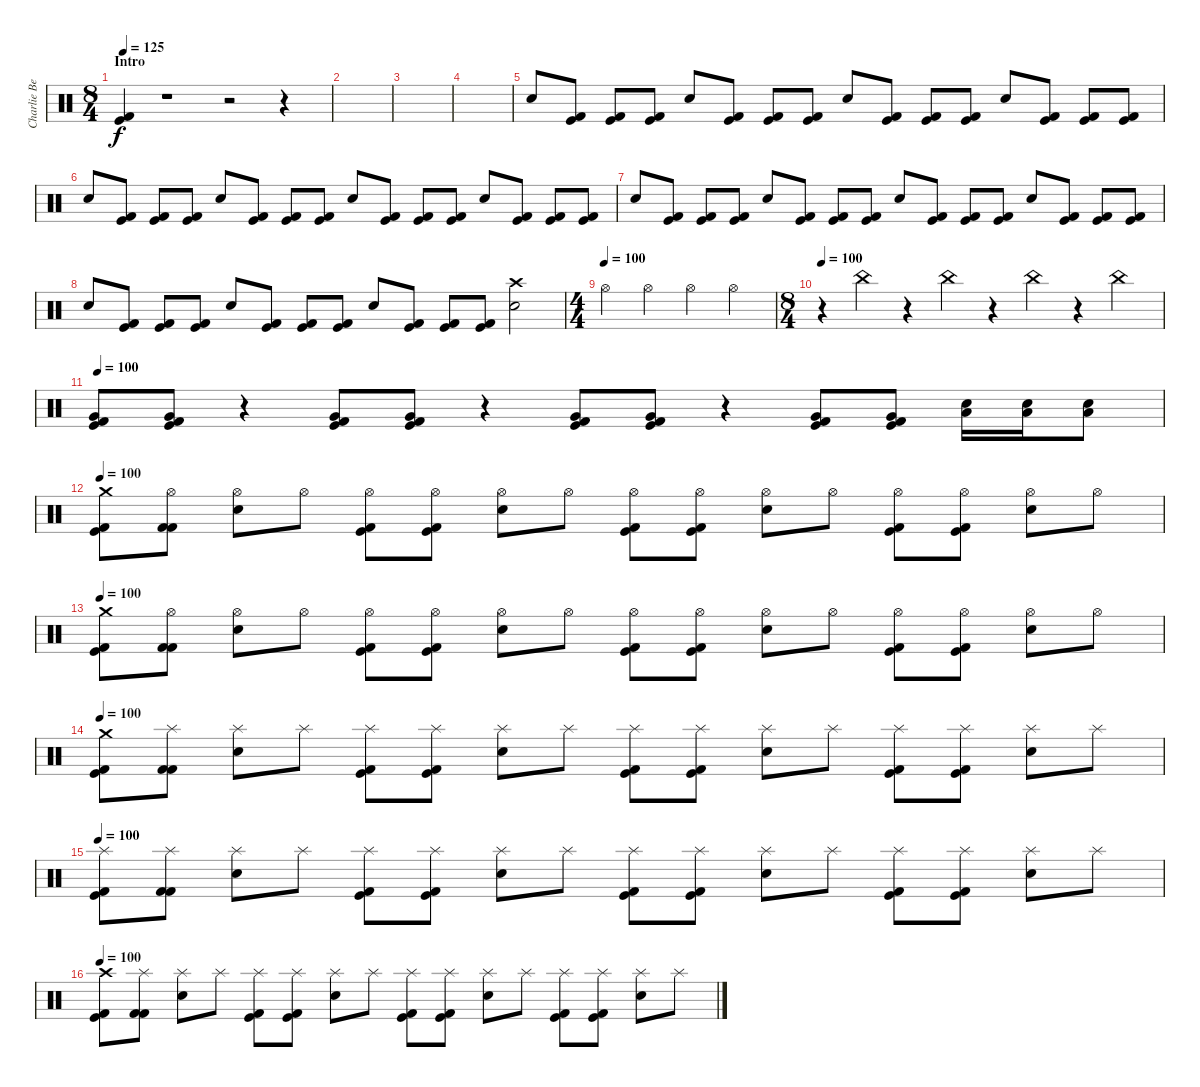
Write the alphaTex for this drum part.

\track ("Charlie Benante" "Charlie Be") {instrument percussion}
\staff {score}
\articulation defaults
\ts (8 4)
\section ("" "Intro")
\tempo 125
\clef neutral
\ks c
("Kick (hit)" "Kick (hit) 2").4{dy f} r.1 r.2 r.4 |
|
|
|
"Electric Snare (hit)".8 ("Kick (hit)" "Kick (hit) 2").8 ("Kick (hit)" "Kick (hit) 2").8 ("Kick (hit)" "Kick (hit) 2").8 "Electric Snare (hit)".8 ("Kick (hit)" "Kick (hit) 2").8 ("Kick (hit)" "Kick (hit) 2").8 ("Kick (hit)" "Kick (hit) 2").8 "Electric Snare (hit)".8 ("Kick (hit)" "Kick (hit) 2").8 ("Kick (hit)" "Kick (hit) 2").8 ("Kick (hit)" "Kick (hit) 2").8 "Electric Snare (hit)".8 ("Kick (hit)" "Kick (hit) 2").8 ("Kick (hit)" "Kick (hit) 2").8 ("Kick (hit)" "Kick (hit) 2").8 |
"Electric Snare (hit)".8 ("Kick (hit)" "Kick (hit) 2").8 ("Kick (hit)" "Kick (hit) 2").8 ("Kick (hit)" "Kick (hit) 2").8 "Electric Snare (hit)".8 ("Kick (hit)" "Kick (hit) 2").8 ("Kick (hit)" "Kick (hit) 2").8 ("Kick (hit)" "Kick (hit) 2").8 "Electric Snare (hit)".8 ("Kick (hit)" "Kick (hit) 2").8 ("Kick (hit)" "Kick (hit) 2").8 ("Kick (hit)" "Kick (hit) 2").8 "Electric Snare (hit)".8 ("Kick (hit)" "Kick (hit) 2").8 ("Kick (hit)" "Kick (hit) 2").8 ("Kick (hit)" "Kick (hit) 2").8 |
"Electric Snare (hit)".8 ("Kick (hit)" "Kick (hit) 2").8 ("Kick (hit)" "Kick (hit) 2").8 ("Kick (hit)" "Kick (hit) 2").8 "Electric Snare (hit)".8 ("Kick (hit)" "Kick (hit) 2").8 ("Kick (hit)" "Kick (hit) 2").8 ("Kick (hit)" "Kick (hit) 2").8 "Electric Snare (hit)".8 ("Kick (hit)" "Kick (hit) 2").8 ("Kick (hit)" "Kick (hit) 2").8 ("Kick (hit)" "Kick (hit) 2").8 "Electric Snare (hit)".8 ("Kick (hit)" "Kick (hit) 2").8 ("Kick (hit)" "Kick (hit) 2").8 ("Kick (hit)" "Kick (hit) 2").8 |
"Electric Snare (hit)".8 ("Kick (hit)" "Kick (hit) 2").8 ("Kick (hit)" "Kick (hit) 2").8 ("Kick (hit)" "Kick (hit) 2").8 "Electric Snare (hit)".8 ("Kick (hit)" "Kick (hit) 2").8 ("Kick (hit)" "Kick (hit) 2").8 ("Kick (hit)" "Kick (hit) 2").8 "Electric Snare (hit)".8 ("Kick (hit)" "Kick (hit) 2").8 ("Kick (hit)" "Kick (hit) 2").8 ("Kick (hit)" "Kick (hit) 2").8 ("Crash high (hit)" "Electric Snare (hit)").2 |
\ts (4 4)
\tempo (100)
"Hi-Hat (open)".4 "Hi-Hat (open)".4 "Hi-Hat (open)".4 "Hi-Hat (open)".4 |
\ts (8 4)
\tempo 100
r.4 "China (hit)".4 r.4 "China (hit)".4 r.4 "China (hit)".4 r.4 "China (hit)".4 |
\tempo 100
("Very Low Tom (hit)" "Kick (hit)" "Kick (hit) 2").8 ("Very Low Tom (hit)" "Kick (hit)" "Kick (hit) 2").8 r.4 ("Very Low Tom (hit)" "Kick (hit)" "Kick (hit) 2").8 ("Very Low Tom (hit)" "Kick (hit)" "Kick (hit) 2").8 r.4 ("Very Low Tom (hit)" "Kick (hit)" "Kick (hit) 2").8 ("Very Low Tom (hit)" "Kick (hit)" "Kick (hit) 2").8 r.4 ("Very Low Tom (hit)" "Kick (hit)" "Kick (hit) 2").8 ("Very Low Tom (hit)" "Kick (hit)" "Kick (hit) 2").8 ("Low Tom (hit)" "Electric Snare (hit)").16 ("Low Floor Tom (hit)" "Electric Snare (hit)").16 ("Low Floor Tom (hit)" "Electric Snare (hit)").8 |
\tempo 100
("Crash medium (hit)" "Kick (hit)" "Kick (hit) 2").8 ("Hi-Hat (open)" "Kick (hit) 2" "Kick (hit) 2").8 ("Hi-Hat (open)" "Electric Snare (hit)").8 "Hi-Hat (open)".8 ("Hi-Hat (open)" "Kick (hit)" "Kick (hit) 2").8 ("Hi-Hat (open)" "Kick (hit)" "Kick (hit) 2").8 ("Hi-Hat (open)" "Electric Snare (hit)").8 "Hi-Hat (open)".8 ("Hi-Hat (open)" "Kick (hit)" "Kick (hit) 2").8 ("Hi-Hat (open)" "Kick (hit)" "Kick (hit) 2").8 ("Hi-Hat (open)" "Electric Snare (hit)").8 "Hi-Hat (open)".8 ("Hi-Hat (open)" "Kick (hit)" "Kick (hit) 2").8 ("Hi-Hat (open)" "Kick (hit)" "Kick (hit) 2").8 ("Hi-Hat (open)" "Electric Snare (hit)").8 "Hi-Hat (open)".8 |
\tempo 100
("Crash medium (hit)" "Kick (hit)" "Kick (hit) 2").8 ("Hi-Hat (open)" "Kick (hit) 2" "Kick (hit) 2").8 ("Hi-Hat (open)" "Electric Snare (hit)").8 "Hi-Hat (open)".8 ("Hi-Hat (open)" "Kick (hit)" "Kick (hit) 2").8 ("Hi-Hat (open)" "Kick (hit)" "Kick (hit) 2").8 ("Hi-Hat (open)" "Electric Snare (hit)").8 "Hi-Hat (open)".8 ("Hi-Hat (open)" "Kick (hit)" "Kick (hit) 2").8 ("Hi-Hat (open)" "Kick (hit)" "Kick (hit) 2").8 ("Hi-Hat (open)" "Electric Snare (hit)").8 "Hi-Hat (open)".8 ("Hi-Hat (open)" "Kick (hit)" "Kick (hit) 2").8 ("Hi-Hat (open)" "Kick (hit)" "Kick (hit) 2").8 ("Hi-Hat (open)" "Electric Snare (hit)").8 "Hi-Hat (open)".8 |
\tempo 100
("Crash medium (hit)" "Kick (hit)" "Kick (hit) 2").8 ("Splash (hit)" "Kick (hit) 2" "Kick (hit) 2").8 ("Splash (hit)" "Electric Snare (hit)").8 "Splash (hit)".8 ("Splash (hit)" "Kick (hit)" "Kick (hit) 2").8 ("Splash (hit)" "Kick (hit)" "Kick (hit) 2").8 ("Splash (hit)" "Electric Snare (hit)").8 "Splash (hit)".8 ("Splash (hit)" "Kick (hit)" "Kick (hit) 2").8 ("Splash (hit)" "Kick (hit)" "Kick (hit) 2").8 ("Splash (hit)" "Electric Snare (hit)").8 "Splash (hit)".8 ("Splash (hit)" "Kick (hit)" "Kick (hit) 2").8 ("Splash (hit)" "Kick (hit)" "Kick (hit) 2").8 ("Splash (hit)" "Electric Snare (hit)").8 "Splash (hit)".8 |
\tempo 100
("Splash (hit)" "Kick (hit)" "Kick (hit) 2").8 ("Splash (hit)" "Kick (hit) 2" "Kick (hit) 2").8 ("Splash (hit)" "Electric Snare (hit)").8 "Splash (hit)".8 ("Splash (hit)" "Kick (hit)" "Kick (hit) 2").8 ("Splash (hit)" "Kick (hit)" "Kick (hit) 2").8 ("Splash (hit)" "Electric Snare (hit)").8 "Splash (hit)".8 ("Splash (hit)" "Kick (hit)" "Kick (hit) 2").8 ("Splash (hit)" "Kick (hit)" "Kick (hit) 2").8 ("Splash (hit)" "Electric Snare (hit)").8 "Splash (hit)".8 ("Splash (hit)" "Kick (hit)" "Kick (hit) 2").8 ("Splash (hit)" "Kick (hit)" "Kick (hit) 2").8 ("Splash (hit)" "Electric Snare (hit)").8 "Splash (hit)".8 |
\tempo 100
("Crash high (hit)" "Kick (hit)" "Kick (hit) 2").8 ("Splash (hit)" "Kick (hit) 2" "Kick (hit) 2").8 ("Splash (hit)" "Electric Snare (hit)").8 "Splash (hit)".8 ("Splash (hit)" "Kick (hit)" "Kick (hit) 2").8 ("Splash (hit)" "Kick (hit)" "Kick (hit) 2").8 ("Splash (hit)" "Electric Snare (hit)").8 "Splash (hit)".8 ("Splash (hit)" "Kick (hit)" "Kick (hit) 2").8 ("Splash (hit)" "Kick (hit)" "Kick (hit) 2").8 ("Splash (hit)" "Electric Snare (hit)").8 "Splash (hit)".8 ("Splash (hit)" "Kick (hit)" "Kick (hit) 2").8 ("Splash (hit)" "Kick (hit)" "Kick (hit) 2").8 ("Splash (hit)" "Electric Snare (hit)").8 "Splash (hit)".8
